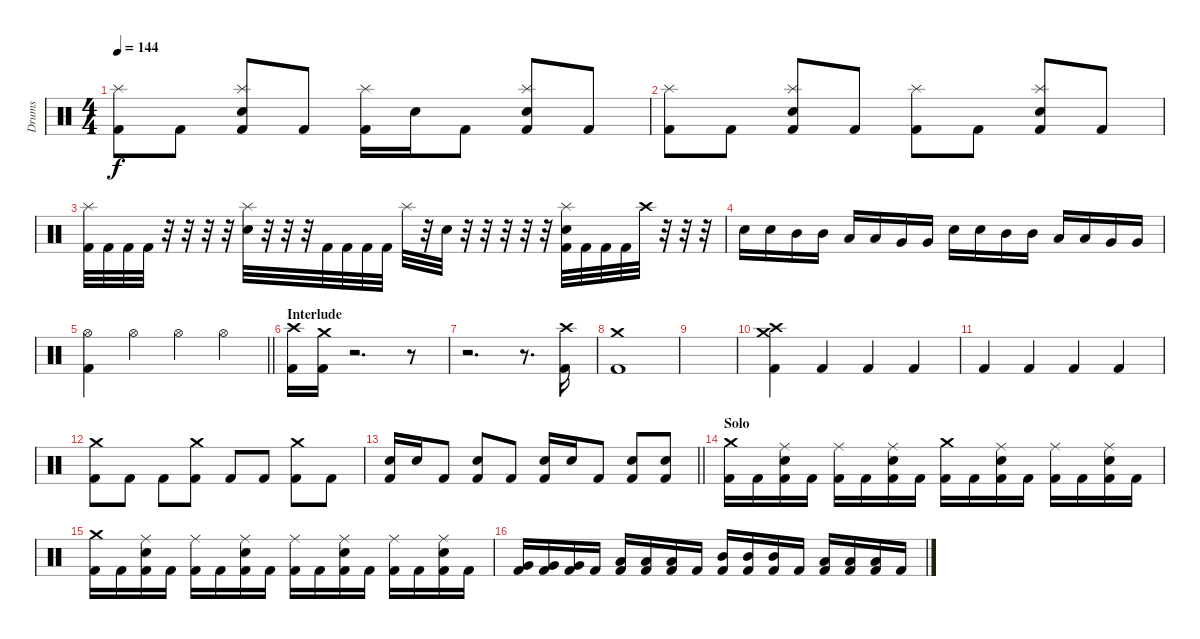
\track ("Drums" "Drums") {instrument percussion}
\staff {score}
\articulation defaults
\ts (4 4)
\tempo 144
\clef neutral
\ks c
("Kick (hit) 2" "Splash (hit)").8{dy f} "Kick (hit) 2".8 ("Kick (hit) 2" "Snare (hit) 2" "Splash (hit)").8 "Kick (hit) 2".8 ("Kick (hit) 2" "Splash (hit)").16 "Snare (hit) 2".16 "Kick (hit) 2".8 ("Kick (hit) 2" "Snare (hit) 2" "Splash (hit)").8 "Kick (hit) 2".8 |
("Kick (hit) 2" "Splash (hit)").8 "Kick (hit) 2".8 ("Kick (hit) 2" "Snare (hit) 2" "Splash (hit)").8 "Kick (hit) 2".8 ("Kick (hit) 2" "Splash (hit)").8 "Kick (hit) 2".8 ("Kick (hit) 2" "Snare (hit) 2" "Splash (hit)").8 "Kick (hit) 2".8 |
("Kick (hit) 2" "Splash (hit)").32 "Kick (hit) 2".32 "Kick (hit) 2".32 "Kick (hit) 2".32 r.32 r.32 r.32 r.32 ("Snare (hit) 2" "Splash (hit)").32 r.32 r.32 r.32 "Kick (hit) 2".32 "Kick (hit) 2".32 "Kick (hit) 2".32 "Kick (hit) 2".32 "Splash (hit)".32 r.32 "Snare (hit) 2".32 r.32 r.32 r.32 r.32 r.32 ("Kick (hit) 2" "Snare (hit) 2" "Splash (hit)").32 "Kick (hit) 2".32 "Kick (hit) 2".32 "Kick (hit) 2".32 "Crash high (hit)".32 r.32 r.32 r.32 |
"Snare (hit) 2".16 "Snare (hit) 2".16 "Mid Tom (hit)".16 "Mid Tom (hit)".16 "Low Tom (hit)".16 "Low Tom (hit)".16 "Very Low Tom (hit)".16 "Very Low Tom (hit)".16 "Snare (hit) 2".16 "Snare (hit) 2".16 "Mid Tom (hit)".16 "Mid Tom (hit)".16 "Low Tom (hit)".16 "Low Tom (hit)".16 "Very Low Tom (hit)".16 "Very Low Tom (hit)".16 |
\barLineRight lightlight
("Kick (hit) 2" "Hi-Hat (open)").4 "Hi-Hat (open)".4 "Hi-Hat (open)".4 "Hi-Hat (open)".4 |
\section ("" "Interlude")
("Kick (hit) 2" "Crash high (hit)").16 ("Kick (hit) 2" "Crash medium (hit)").16 r.2{d} r.8 |
r.2{d} r.8{d} ("Kick (hit) 2" "Crash high (hit)").16 |
("Kick (hit) 2" "Crash medium (hit)").1 |
|
("Kick (hit) 2" "Crash high (hit)" "Crash medium (hit)").4 "Kick (hit) 2".4 "Kick (hit) 2".4 "Kick (hit) 2".4 |
"Kick (hit) 2".4 "Kick (hit) 2".4 "Kick (hit) 2".4 "Kick (hit) 2".4 |
("Kick (hit) 2" "Crash medium (hit)").8 "Kick (hit) 2".8 "Kick (hit) 2".8 ("Kick (hit) 2" "Crash medium (hit)").8 "Kick (hit) 2".8 "Kick (hit) 2".8 ("Kick (hit) 2" "Crash medium (hit)").8 "Kick (hit) 2".8 |
\barLineRight lightlight
("Kick (hit) 2" "Snare (hit) 2").16 "Snare (hit) 2".16 "Kick (hit) 2".8 ("Kick (hit) 2" "Snare (hit) 2").8 "Kick (hit) 2".8 ("Kick (hit) 2" "Snare (hit) 2").16 "Snare (hit) 2".16 "Kick (hit) 2".8 ("Kick (hit) 2" "Snare (hit) 2").8 ("Kick (hit) 2" "Snare (hit) 2").8 |
\section ("" "Solo")
("Kick (hit) 2" "Crash medium (hit)").16 "Kick (hit) 2".16 ("Kick (hit) 2" "Snare (hit) 2" "Ride (middle)").16 "Kick (hit) 2".16 ("Kick (hit) 2" "Ride (middle)").16 "Kick (hit) 2".16 ("Kick (hit) 2" "Snare (hit) 2" "Ride (middle)").16 "Kick (hit) 2".16 ("Kick (hit) 2" "Crash medium (hit)").16 "Kick (hit) 2".16 ("Kick (hit) 2" "Snare (hit) 2" "Ride (middle)").16 "Kick (hit) 2".16 ("Kick (hit) 2" "Ride (middle)").16 "Kick (hit) 2".16 ("Kick (hit) 2" "Snare (hit) 2" "Ride (middle)").16 "Kick (hit) 2".16 |
("Kick (hit) 2" "Crash medium (hit)").16 "Kick (hit) 2".16 ("Kick (hit) 2" "Snare (hit) 2" "Ride (middle)").16 "Kick (hit) 2".16 ("Kick (hit) 2" "Ride (middle)").16 "Kick (hit) 2".16 ("Kick (hit) 2" "Snare (hit) 2" "Ride (middle)").16 "Kick (hit) 2".16 ("Kick (hit) 2" "Ride (middle)").16 "Kick (hit) 2".16 ("Kick (hit) 2" "Snare (hit) 2" "Ride (middle)").16 "Kick (hit) 2".16 ("Kick (hit) 2" "Ride (middle)").16 "Kick (hit) 2".16 ("Kick (hit) 2" "Snare (hit) 2" "Ride (middle)").16 "Kick (hit) 2".16 |
("Kick (hit) 2" "Very Low Tom (hit)").16 ("Kick (hit) 2" "Very Low Tom (hit)").16 ("Kick (hit) 2" "Very Low Tom (hit)").16 "Kick (hit) 2".16 ("Kick (hit) 2" "Low Tom (hit)").16 ("Kick (hit) 2" "Low Tom (hit)").16 ("Kick (hit) 2" "Low Tom (hit)").16 "Kick (hit) 2".16 ("Kick (hit) 2" "Mid Tom (hit)").16 ("Kick (hit) 2" "Mid Tom (hit)").16 ("Kick (hit) 2" "Mid Tom (hit)").16 "Kick (hit) 2".16 ("Kick (hit) 2" "Low Tom (hit)").16 ("Kick (hit) 2" "Low Tom (hit)").16 ("Kick (hit) 2" "Low Tom (hit)").16 "Kick (hit) 2".16
